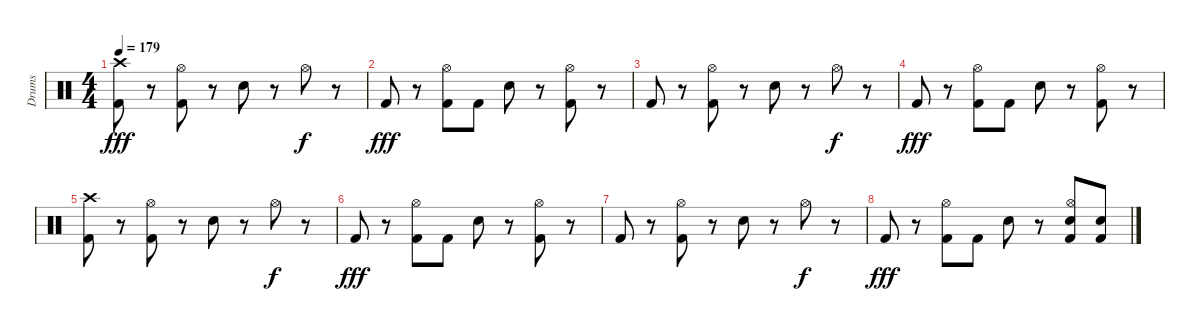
\track ("Drums" "Drums") {instrument percussion}
\staff {score}
\articulation defaults
\ts (4 4)
\tempo 179
\clef neutral
\ks c
("Crash high (hit)" "Kick (hit) 2").8{dy fff} r.8 ("Hi-Hat (open)" "Kick (hit) 2").8 r.8 "Snare (hit) 2".8 r.8 "Hi-Hat (open)".8{dy f} r.8 |
"Kick (hit) 2".8{dy fff} r.8 ("Hi-Hat (open)" "Kick (hit) 2").8 "Kick (hit) 2".8 "Snare (hit) 2".8 r.8 ("Hi-Hat (open)" "Kick (hit) 2").8 r.8 |
"Kick (hit) 2".8 r.8 ("Hi-Hat (open)" "Kick (hit) 2").8 r.8 "Snare (hit) 2".8 r.8 "Hi-Hat (open)".8{dy f} r.8 |
"Kick (hit) 2".8{dy fff} r.8 ("Hi-Hat (open)" "Kick (hit) 2").8 "Kick (hit) 2".8 "Snare (hit) 2".8 r.8 ("Hi-Hat (open)" "Kick (hit) 2").8 r.8 |
("Crash high (hit)" "Kick (hit) 2").8 r.8 ("Hi-Hat (open)" "Kick (hit) 2").8 r.8 "Snare (hit) 2".8 r.8 "Hi-Hat (open)".8{dy f} r.8 |
"Kick (hit) 2".8{dy fff} r.8 ("Hi-Hat (open)" "Kick (hit) 2").8 "Kick (hit) 2".8 "Snare (hit) 2".8 r.8 ("Hi-Hat (open)" "Kick (hit) 2").8 r.8 |
"Kick (hit) 2".8 r.8 ("Hi-Hat (open)" "Kick (hit) 2").8 r.8 "Snare (hit) 2".8 r.8 "Hi-Hat (open)".8{dy f} r.8 |
"Kick (hit) 2".8{dy fff} r.8 ("Hi-Hat (open)" "Kick (hit) 2").8 "Kick (hit) 2".8 "Snare (hit) 2".8 r.8 ("Hi-Hat (open)" "Snare (hit) 2" "Kick (hit) 2").8 ("Snare (hit) 2" "Kick (hit) 2").8
